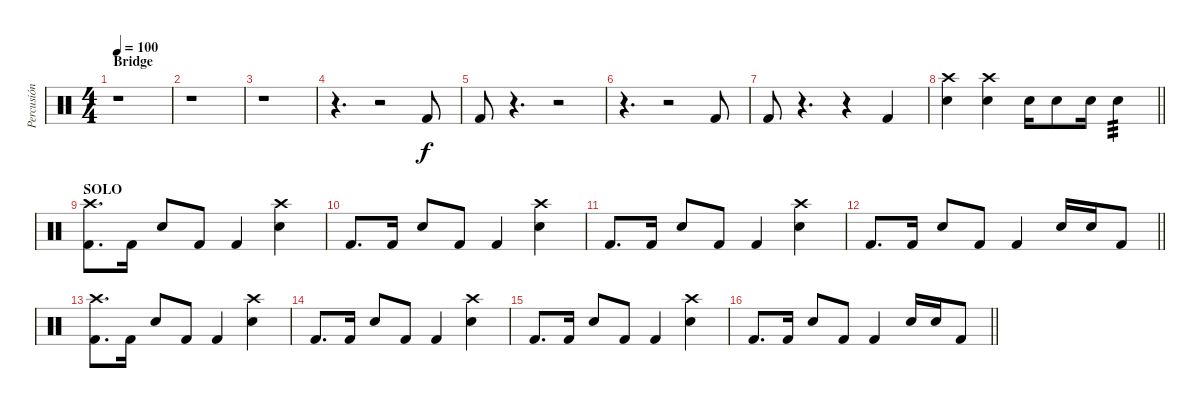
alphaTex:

\track ("Percusión" "Percusión") {instrument percussion}
\staff {score}
\articulation defaults
\ts (4 4)
\section ("" "Bridge")
\tempo 100
\clef neutral
\ks c
r.1{dy f} |
r.1 |
r.1 |
r.4{d} r.2 "Kick (hit) 2".8 |
"Kick (hit) 2".8 r.4{d} r.2 |
r.4{d} r.2 "Kick (hit) 2".8 |
"Kick (hit) 2".8 r.4{d} r.4 "Kick (hit) 2".4 |
\barLineRight lightlight
("Crash high (hit)" "Electric Snare (hit)").4 ("Crash high (hit)" "Electric Snare (hit)").4 "Electric Snare (hit)".16 "Electric Snare (hit)".8 "Electric Snare (hit)".16 "Electric Snare (hit)".4{tp 3} |
\section ("" "SOLO")
("Crash high (hit)" "Kick (hit) 2").8{d} "Kick (hit) 2".16 "Electric Snare (hit)".8 "Kick (hit) 2".8 "Kick (hit) 2".4 ("Crash high (hit)" "Electric Snare (hit)").4 |
"Kick (hit) 2".8{d} "Kick (hit) 2".16 "Electric Snare (hit)".8 "Kick (hit) 2".8 "Kick (hit) 2".4 ("Crash high (hit)" "Electric Snare (hit)").4 |
"Kick (hit) 2".8{d} "Kick (hit) 2".16 "Electric Snare (hit)".8 "Kick (hit) 2".8 "Kick (hit) 2".4 ("Crash high (hit)" "Electric Snare (hit)").4 |
\barLineRight lightlight "Kick (hit) 2".8{d} "Kick (hit) 2".16 "Electric Snare (hit)".8 "Kick (hit) 2".8 "Kick (hit) 2".4 "Electric Snare (hit)".16 "Electric Snare (hit)".16 "Kick (hit) 2".8
|
("Crash high (hit)" "Kick (hit) 2").8{d} "Kick (hit) 2".16 "Electric Snare (hit)".8 "Kick (hit) 2".8 "Kick (hit) 2".4 ("Crash high (hit)" "Electric Snare (hit)").4 |
"Kick (hit) 2".8{d} "Kick (hit) 2".16 "Electric Snare (hit)".8 "Kick (hit) 2".8 "Kick (hit) 2".4 ("Crash high (hit)" "Electric Snare (hit)").4 |
"Kick (hit) 2".8{d} "Kick (hit) 2".16 "Electric Snare (hit)".8 "Kick (hit) 2".8 "Kick (hit) 2".4 ("Crash high (hit)" "Electric Snare (hit)").4 |
\barLineRight lightlight "Kick (hit) 2".8{d} "Kick (hit) 2".16 "Electric Snare (hit)".8 "Kick (hit) 2".8 "Kick (hit) 2".4 "Electric Snare (hit)".16 "Electric Snare (hit)".16 "Kick (hit) 2".8
